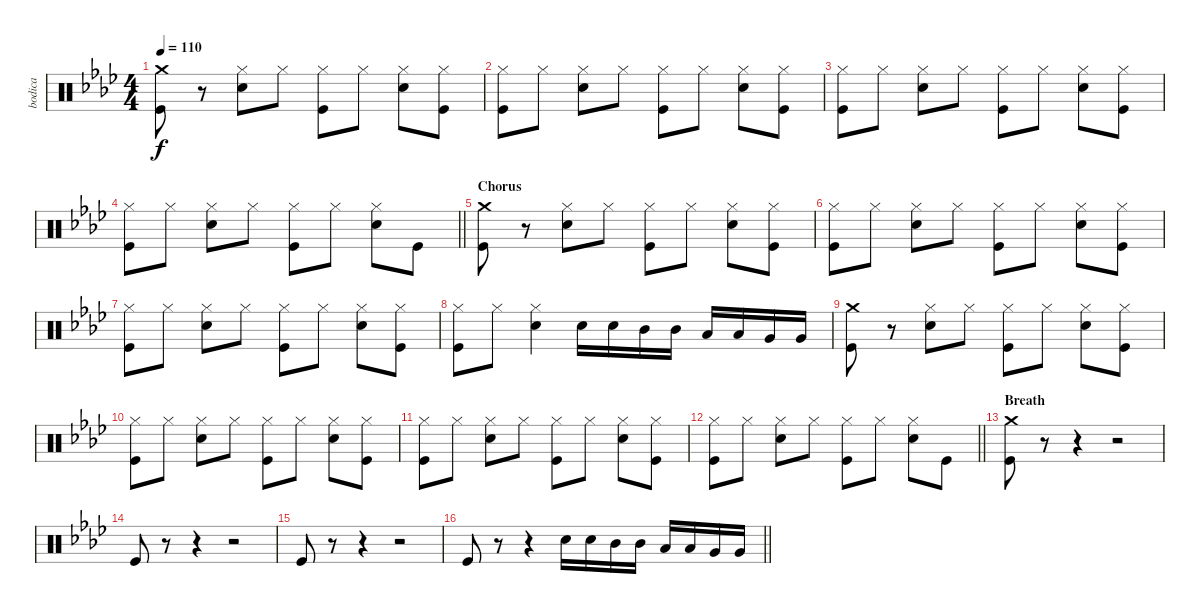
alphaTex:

\track ("bodica" "bodica") {instrument percussion}
\staff {score}
\articulation defaults
\ts (4 4)
\tempo 110
\clef neutral
\ks fminor
("Crash medium (hit)" "Kick (hit)").8{dy f} r.8 ("Hi-Hat (closed)" "Snare (hit) 2").8 "Hi-Hat (closed)".8 ("Hi-Hat (closed)" "Kick (hit)").8 "Hi-Hat (closed)".8 ("Hi-Hat (closed)" "Snare (hit) 2").8 ("Hi-Hat (closed)" "Kick (hit)").8 |
("Hi-Hat (closed)" "Kick (hit)").8 "Hi-Hat (closed)".8 ("Hi-Hat (closed)" "Snare (hit) 2").8 "Hi-Hat (closed)".8 ("Hi-Hat (closed)" "Kick (hit)").8 "Hi-Hat (closed)".8 ("Hi-Hat (closed)" "Snare (hit) 2").8 ("Hi-Hat (closed)" "Kick (hit)").8 |
("Hi-Hat (closed)" "Kick (hit)").8 "Hi-Hat (closed)".8 ("Hi-Hat (closed)" "Snare (hit) 2").8 "Hi-Hat (closed)".8 ("Hi-Hat (closed)" "Kick (hit)").8 "Hi-Hat (closed)".8 ("Hi-Hat (closed)" "Snare (hit) 2").8 ("Hi-Hat (closed)" "Kick (hit)").8 |
\barLineRight lightlight
("Hi-Hat (closed)" "Kick (hit)").8 "Hi-Hat (closed)".8 ("Hi-Hat (closed)" "Snare (hit) 2").8 "Hi-Hat (closed)".8 ("Hi-Hat (closed)" "Kick (hit)").8 "Hi-Hat (closed)".8 ("Hi-Hat (closed)" "Snare (hit) 2").8 "Kick (hit)".8 |
\section ("" "Chorus")
("Crash medium (hit)" "Kick (hit)").8 r.8 ("Hi-Hat (closed)" "Snare (hit) 2").8 "Hi-Hat (closed)".8 ("Hi-Hat (closed)" "Kick (hit)").8 "Hi-Hat (closed)".8 ("Hi-Hat (closed)" "Snare (hit) 2").8 ("Hi-Hat (closed)" "Kick (hit)").8 |
("Hi-Hat (closed)" "Kick (hit)").8 "Hi-Hat (closed)".8 ("Hi-Hat (closed)" "Snare (hit) 2").8 "Hi-Hat (closed)".8 ("Hi-Hat (closed)" "Kick (hit)").8 "Hi-Hat (closed)".8 ("Hi-Hat (closed)" "Snare (hit) 2").8 ("Hi-Hat (closed)" "Kick (hit)").8 |
("Hi-Hat (closed)" "Kick (hit)").8 "Hi-Hat (closed)".8 ("Hi-Hat (closed)" "Snare (hit) 2").8 "Hi-Hat (closed)".8 ("Hi-Hat (closed)" "Kick (hit)").8 "Hi-Hat (closed)".8 ("Hi-Hat (closed)" "Snare (hit) 2").8 ("Hi-Hat (closed)" "Kick (hit)").8 |
("Hi-Hat (closed)" "Kick (hit)").8 "Hi-Hat (closed)".8 ("Hi-Hat (closed)" "Snare (hit) 2").4 "Snare (hit) 2".16 "Snare (hit) 2".16 "Mid Tom (hit)".16 "Mid Tom (hit)".16 "Low Tom (hit)".16 "Low Tom (hit)".16 "Very Low Tom (hit)".16 "Very Low Tom (hit)".16 |
("Crash medium (hit)" "Kick (hit)").8 r.8 ("Hi-Hat (closed)" "Snare (hit) 2").8 "Hi-Hat (closed)".8 ("Hi-Hat (closed)" "Kick (hit)").8 "Hi-Hat (closed)".8 ("Hi-Hat (closed)" "Snare (hit) 2").8 ("Hi-Hat (closed)" "Kick (hit)").8 |
("Hi-Hat (closed)" "Kick (hit)").8 "Hi-Hat (closed)".8 ("Hi-Hat (closed)" "Snare (hit) 2").8 "Hi-Hat (closed)".8 ("Hi-Hat (closed)" "Kick (hit)").8 "Hi-Hat (closed)".8 ("Hi-Hat (closed)" "Snare (hit) 2").8 ("Hi-Hat (closed)" "Kick (hit)").8 |
("Hi-Hat (closed)" "Kick (hit)").8 "Hi-Hat (closed)".8 ("Hi-Hat (closed)" "Snare (hit) 2").8 "Hi-Hat (closed)".8 ("Hi-Hat (closed)" "Kick (hit)").8 "Hi-Hat (closed)".8 ("Hi-Hat (closed)" "Snare (hit) 2").8 ("Hi-Hat (closed)" "Kick (hit)").8 |
\barLineRight lightlight
("Hi-Hat (closed)" "Kick (hit)").8 "Hi-Hat (closed)".8 ("Hi-Hat (closed)" "Snare (hit) 2").8 "Hi-Hat (closed)".8 ("Hi-Hat (closed)" "Kick (hit)").8 "Hi-Hat (closed)".8 ("Hi-Hat (closed)" "Snare (hit) 2").8 "Kick (hit)".8 |
\section ("" "Breath")
("Crash medium (hit)" "Kick (hit)").8 r.8 r.4 r.2 |
"Kick (hit)".8 r.8 r.4 r.2 |
"Kick (hit)".8 r.8 r.4 r.2 |
\barLineRight lightlight "Kick (hit)".8
r.8 r.4 "Snare (hit) 2".16 "Snare (hit) 2".16 "Mid Tom (hit)".16 "Mid Tom (hit)".16 "Low Tom (hit)".16 "Low Tom (hit)".16 "Very Low Tom (hit)".16 "Very Low Tom (hit)".16
